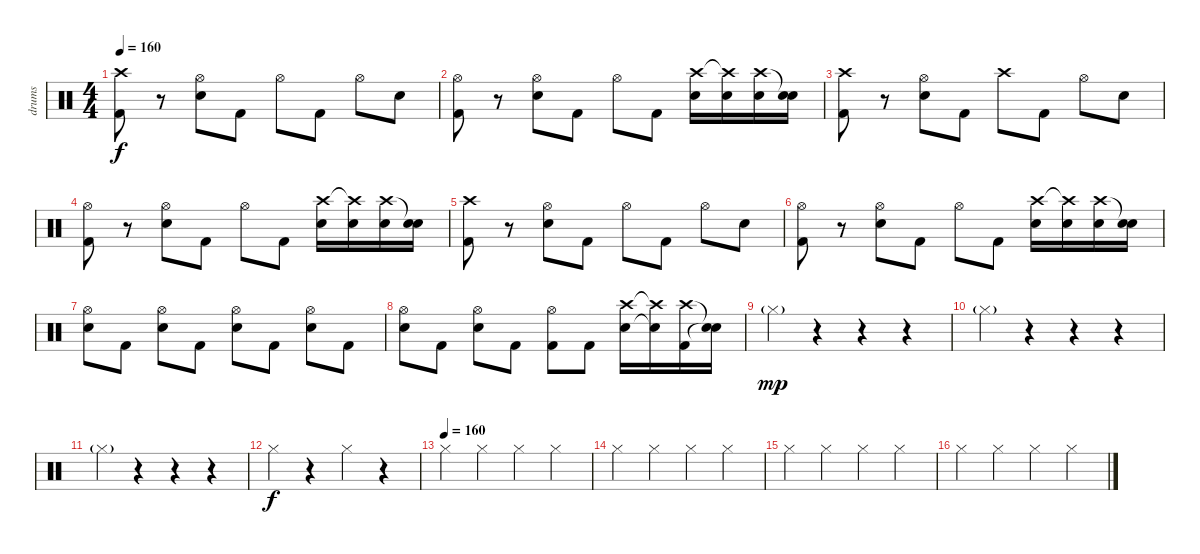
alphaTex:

\track ("drums" "drums") {instrument percussion}
\staff {score}
\articulation defaults
\ts (4 4)
\tempo 160
\clef neutral
\ks c
("Crash high (hit)" "Kick (hit) 2").8{dy f} r.8 ("Hi-Hat (open)" "Electric Snare (hit)").8 "Kick (hit) 2".8 "Hi-Hat (open)".8 "Kick (hit) 2".8 "Hi-Hat (open)".8 "Electric Snare (hit)".8 |
("Hi-Hat (open)" "Kick (hit) 2").8 r.8 ("Hi-Hat (open)" "Electric Snare (hit)").8 "Kick (hit) 2".8 "Hi-Hat (open)".8 "Kick (hit) 2".8 ("Crash high (hit)" "Electric Snare (hit)").16 ("Crash high (hit)"{t} "Electric Snare (hit)").16 ("Crash high (hit)" "Electric Snare (hit)").16 ("Snare (hit)"{t} "Electric Snare (hit)").16 |
("Crash high (hit)" "Kick (hit) 2").8 r.8 ("Hi-Hat (open)" "Electric Snare (hit)").8 "Kick (hit) 2".8 "Crash high (hit)".8 "Kick (hit) 2".8 "Hi-Hat (open)".8 "Electric Snare (hit)".8 |
("Hi-Hat (open)" "Kick (hit) 2").8 r.8 ("Hi-Hat (open)" "Electric Snare (hit)").8 "Kick (hit) 2".8 "Hi-Hat (open)".8 "Kick (hit) 2".8 ("Crash high (hit)" "Electric Snare (hit)").16 ("Crash high (hit)"{t} "Electric Snare (hit)").16 ("Crash high (hit)" "Electric Snare (hit)").16 ("Snare (hit)"{t} "Electric Snare (hit)").16 |
("Crash high (hit)" "Kick (hit) 2").8 r.8 ("Hi-Hat (open)" "Electric Snare (hit)").8 "Kick (hit) 2".8 "Hi-Hat (open)".8 "Kick (hit) 2".8 "Hi-Hat (open)".8 "Electric Snare (hit)".8 |
("Hi-Hat (open)" "Kick (hit) 2").8 r.8 ("Hi-Hat (open)" "Electric Snare (hit)").8 "Kick (hit) 2".8 "Hi-Hat (open)".8 "Kick (hit) 2".8 ("Crash high (hit)" "Electric Snare (hit)").16 ("Crash high (hit)"{t} "Electric Snare (hit)").16 ("Crash high (hit)" "Electric Snare (hit)").16 ("Snare (hit)"{t} "Electric Snare (hit)").16 |
("Hi-Hat (open)" "Electric Snare (hit)").8 "Kick (hit) 2".8 ("Hi-Hat (open)" "Electric Snare (hit)").8 "Kick (hit) 2".8 ("Hi-Hat (open)" "Electric Snare (hit)").8 "Kick (hit) 2".8 ("Hi-Hat (open)" "Electric Snare (hit)").8 "Kick (hit) 2".8 |
("Hi-Hat (open)" "Electric Snare (hit)").8 "Kick (hit) 2".8 ("Hi-Hat (open)" "Electric Snare (hit)").8 "Kick (hit) 2".8 ("Hi-Hat (open)" "Kick (hit) 2").8 "Kick (hit) 2".8 ("Crash high (hit)" "Electric Snare (hit)").16 ("Crash high (hit)"{t} "Electric Snare (hit)"{t}).16 ("Crash high (hit)" "Kick (hit) 2").16 ("Snare (hit)"{t} "Electric Snare (hit)"{t}).16 |
"Hi-Hat (closed)"{g}.4{dy mp} r.4 r.4 r.4 |
"Hi-Hat (closed)"{g}.4 r.4 r.4 r.4 |
"Hi-Hat (closed)"{g}.4 r.4 r.4 r.4 |
"Hi-Hat (closed)".4{dy f} r.4 "Hi-Hat (closed)".4 r.4 |
\tempo (160)
"Hi-Hat (closed)".4 "Hi-Hat (closed)".4 "Hi-Hat (closed)".4 "Hi-Hat (closed)".4 |
"Hi-Hat (closed)".4 "Hi-Hat (closed)".4 "Hi-Hat (closed)".4 "Hi-Hat (closed)".4 |
"Hi-Hat (closed)".4 "Hi-Hat (closed)".4 "Hi-Hat (closed)".4 "Hi-Hat (closed)".4 |
"Hi-Hat (closed)".4 "Hi-Hat (closed)".4 "Hi-Hat (closed)".4 "Hi-Hat (closed)".4
